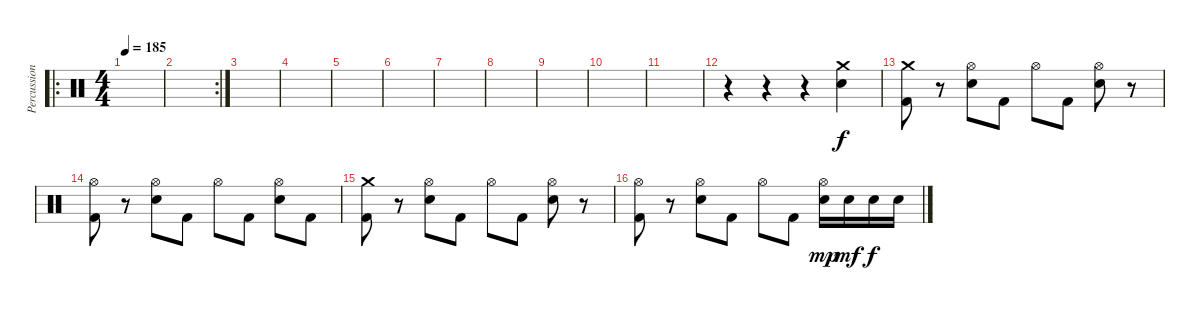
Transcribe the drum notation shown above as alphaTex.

\track ("Percussions" "Percussion") {instrument percussion}
\staff {score}
\articulation defaults
\ro
\ts (4 4)
\tempo 185
\clef neutral
\ks c
|
\rc 2
|
|
|
|
|
|
|
|
|
|
r.4 r.4 r.4 ("Crash medium (hit)" "Electric Snare (hit)").4 |
("Crash medium (hit)" "Kick (hit) 2").8 r.8 ("Hi-Hat (open)" "Electric Snare (hit)").8 "Kick (hit) 2".8 "Hi-Hat (open)".8 "Kick (hit) 2".8 ("Hi-Hat (open)" "Electric Snare (hit)").8 r.8 |
("Hi-Hat (open)" "Kick (hit) 2").8 r.8 ("Hi-Hat (open)" "Electric Snare (hit)").8 "Kick (hit) 2".8 "Hi-Hat (open)".8 "Kick (hit) 2".8 ("Hi-Hat (open)" "Electric Snare (hit)").8 "Kick (hit) 2".8 |
("Crash medium (hit)" "Kick (hit) 2").8 r.8 ("Hi-Hat (open)" "Electric Snare (hit)").8 "Kick (hit) 2".8 "Hi-Hat (open)".8 "Kick (hit) 2".8 ("Hi-Hat (open)" "Electric Snare (hit)").8 r.8 |
("Hi-Hat (open)" "Kick (hit) 2").8 r.8 ("Hi-Hat (open)" "Electric Snare (hit)").8 "Kick (hit) 2".8 "Hi-Hat (open)".8 "Kick (hit) 2".8 ("Hi-Hat (open)" "Electric Snare (hit)").16{dy mp} "Electric Snare (hit)".16{dy mf} "Electric Snare (hit)".16{dy f} "Electric Snare (hit)".16
